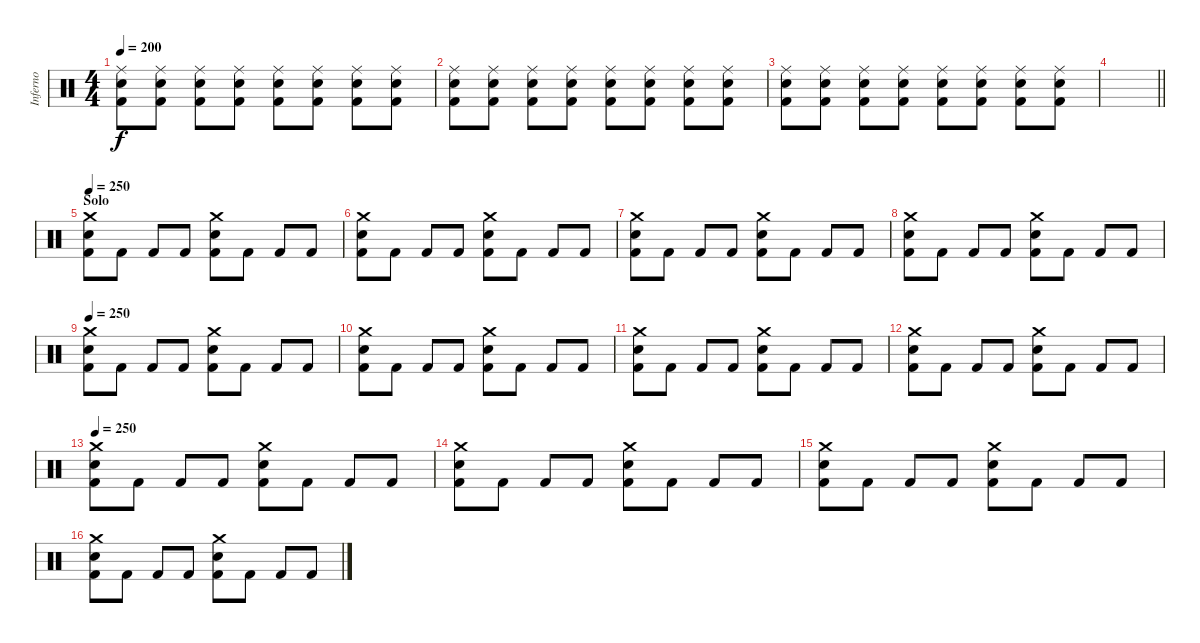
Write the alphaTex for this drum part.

\track ("Inferno" "Inferno") {instrument percussion}
\staff {score}
\articulation defaults
\ts (4 4)
\tempo 200
\clef neutral
\ks c
("Ride (middle)" "Electric Snare (hit)" "Kick (hit) 2").8{dy f} ("Ride (middle)" "Electric Snare (hit)" "Kick (hit) 2").8 ("Ride (middle)" "Electric Snare (hit)" "Kick (hit) 2").8 ("Ride (middle)" "Electric Snare (hit)" "Kick (hit) 2").8 ("Ride (middle)" "Electric Snare (hit)" "Kick (hit) 2").8 ("Ride (middle)" "Electric Snare (hit)" "Kick (hit) 2").8 ("Ride (middle)" "Electric Snare (hit)" "Kick (hit) 2").8 ("Ride (middle)" "Electric Snare (hit)" "Kick (hit) 2").8 |
("Ride (middle)" "Electric Snare (hit)" "Kick (hit) 2").8 ("Ride (middle)" "Electric Snare (hit)" "Kick (hit) 2").8 ("Ride (middle)" "Electric Snare (hit)" "Kick (hit) 2").8 ("Ride (middle)" "Electric Snare (hit)" "Kick (hit) 2").8 ("Ride (middle)" "Electric Snare (hit)" "Kick (hit) 2").8 ("Ride (middle)" "Electric Snare (hit)" "Kick (hit) 2").8 ("Ride (middle)" "Electric Snare (hit)" "Kick (hit) 2").8 ("Ride (middle)" "Electric Snare (hit)" "Kick (hit) 2").8 |
("Ride (middle)" "Electric Snare (hit)" "Kick (hit) 2").8 ("Ride (middle)" "Electric Snare (hit)" "Kick (hit) 2").8 ("Ride (middle)" "Electric Snare (hit)" "Kick (hit) 2").8 ("Ride (middle)" "Electric Snare (hit)" "Kick (hit) 2").8 ("Ride (middle)" "Electric Snare (hit)" "Kick (hit) 2").8 ("Ride (middle)" "Electric Snare (hit)" "Kick (hit) 2").8 ("Ride (middle)" "Electric Snare (hit)" "Kick (hit) 2").8 ("Ride (middle)" "Electric Snare (hit)" "Kick (hit) 2").8 |
\barLineRight lightlight
|
\section ("" "Solo")
\tempo 250
("Crash medium (hit)" "Electric Snare (hit)" "Kick (hit) 2").8 "Kick (hit) 2".8 "Kick (hit) 2".8 "Kick (hit) 2".8 ("Crash medium (hit)" "Electric Snare (hit)" "Kick (hit) 2").8 "Kick (hit) 2".8 "Kick (hit) 2".8 "Kick (hit) 2".8 |
("Crash medium (hit)" "Electric Snare (hit)" "Kick (hit) 2").8 "Kick (hit) 2".8 "Kick (hit) 2".8 "Kick (hit) 2".8 ("Crash medium (hit)" "Electric Snare (hit)" "Kick (hit) 2").8 "Kick (hit) 2".8 "Kick (hit) 2".8 "Kick (hit) 2".8 |
("Crash medium (hit)" "Electric Snare (hit)" "Kick (hit) 2").8 "Kick (hit) 2".8 "Kick (hit) 2".8 "Kick (hit) 2".8 ("Crash medium (hit)" "Electric Snare (hit)" "Kick (hit) 2").8 "Kick (hit) 2".8 "Kick (hit) 2".8 "Kick (hit) 2".8 |
("Crash medium (hit)" "Electric Snare (hit)" "Kick (hit) 2").8 "Kick (hit) 2".8 "Kick (hit) 2".8 "Kick (hit) 2".8 ("Crash medium (hit)" "Electric Snare (hit)" "Kick (hit) 2").8 "Kick (hit) 2".8 "Kick (hit) 2".8 "Kick (hit) 2".8 |
\tempo 250
("Crash medium (hit)" "Electric Snare (hit)" "Kick (hit) 2").8 "Kick (hit) 2".8 "Kick (hit) 2".8 "Kick (hit) 2".8 ("Crash medium (hit)" "Electric Snare (hit)" "Kick (hit) 2").8 "Kick (hit) 2".8 "Kick (hit) 2".8 "Kick (hit) 2".8 |
("Crash medium (hit)" "Electric Snare (hit)" "Kick (hit) 2").8 "Kick (hit) 2".8 "Kick (hit) 2".8 "Kick (hit) 2".8 ("Crash medium (hit)" "Electric Snare (hit)" "Kick (hit) 2").8 "Kick (hit) 2".8 "Kick (hit) 2".8 "Kick (hit) 2".8 |
("Crash medium (hit)" "Electric Snare (hit)" "Kick (hit) 2").8 "Kick (hit) 2".8 "Kick (hit) 2".8 "Kick (hit) 2".8 ("Crash medium (hit)" "Electric Snare (hit)" "Kick (hit) 2").8 "Kick (hit) 2".8 "Kick (hit) 2".8 "Kick (hit) 2".8 |
("Crash medium (hit)" "Electric Snare (hit)" "Kick (hit) 2").8 "Kick (hit) 2".8 "Kick (hit) 2".8 "Kick (hit) 2".8 ("Crash medium (hit)" "Electric Snare (hit)" "Kick (hit) 2").8 "Kick (hit) 2".8 "Kick (hit) 2".8 "Kick (hit) 2".8 |
\tempo 250
("Crash medium (hit)" "Electric Snare (hit)" "Kick (hit) 2").8 "Kick (hit) 2".8 "Kick (hit) 2".8 "Kick (hit) 2".8 ("Crash medium (hit)" "Electric Snare (hit)" "Kick (hit) 2").8 "Kick (hit) 2".8 "Kick (hit) 2".8 "Kick (hit) 2".8 |
("Crash medium (hit)" "Electric Snare (hit)" "Kick (hit) 2").8 "Kick (hit) 2".8 "Kick (hit) 2".8 "Kick (hit) 2".8 ("Crash medium (hit)" "Electric Snare (hit)" "Kick (hit) 2").8 "Kick (hit) 2".8 "Kick (hit) 2".8 "Kick (hit) 2".8 |
("Crash medium (hit)" "Electric Snare (hit)" "Kick (hit) 2").8 "Kick (hit) 2".8 "Kick (hit) 2".8 "Kick (hit) 2".8 ("Crash medium (hit)" "Electric Snare (hit)" "Kick (hit) 2").8 "Kick (hit) 2".8 "Kick (hit) 2".8 "Kick (hit) 2".8 |
("Crash medium (hit)" "Electric Snare (hit)" "Kick (hit) 2").8 "Kick (hit) 2".8 "Kick (hit) 2".8 "Kick (hit) 2".8 ("Crash medium (hit)" "Electric Snare (hit)" "Kick (hit) 2").8 "Kick (hit) 2".8 "Kick (hit) 2".8 "Kick (hit) 2".8
